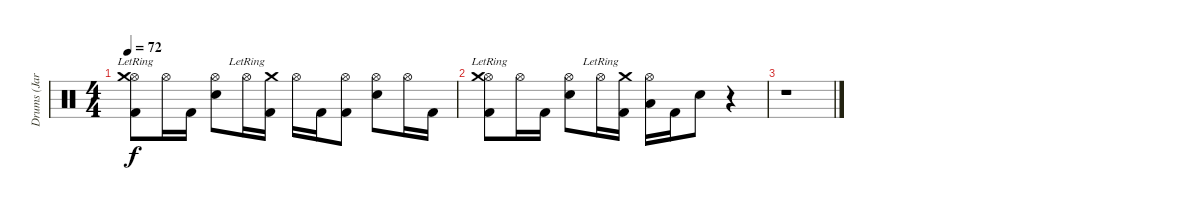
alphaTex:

\track ("Drums (Jarod Montague)" "Drums (Jar") {instrument percussion}
\staff {score}
\articulation defaults
\ts (4 4)
\tempo 72
\clef neutral
\ks c
("Hi-Hat (open)" "Crash medium (hit)"{lr} "Kick (hit) 2").8{dy f} "Hi-Hat (open)".16 "Kick (hit) 2".16 ("Hi-Hat (open)" "Snare (hit) 2").8 "Hi-Hat (open)"{lr}.16 ("Crash medium (hit)"{lr} "Kick (hit) 2").16 "Hi-Hat (open)".16 "Kick (hit) 2".16 ("Hi-Hat (open)" "Kick (hit) 2").8 ("Hi-Hat (open)" "Snare (hit) 2").8 "Hi-Hat (open)".16 "Kick (hit) 2".16 |
("Hi-Hat (open)" "Crash medium (hit)"{lr} "Kick (hit) 2").8 "Hi-Hat (open)".16 "Kick (hit) 2".16 ("Hi-Hat (open)" "Snare (hit) 2").8 "Hi-Hat (open)"{lr}.16 ("Crash medium (hit)"{lr} "Kick (hit) 2").16 ("Hi-Hat (open)" "Low Floor Tom (hit)").16 "Kick (hit) 2".16 "Snare (hit) 2".8 r.4 |
r.1
